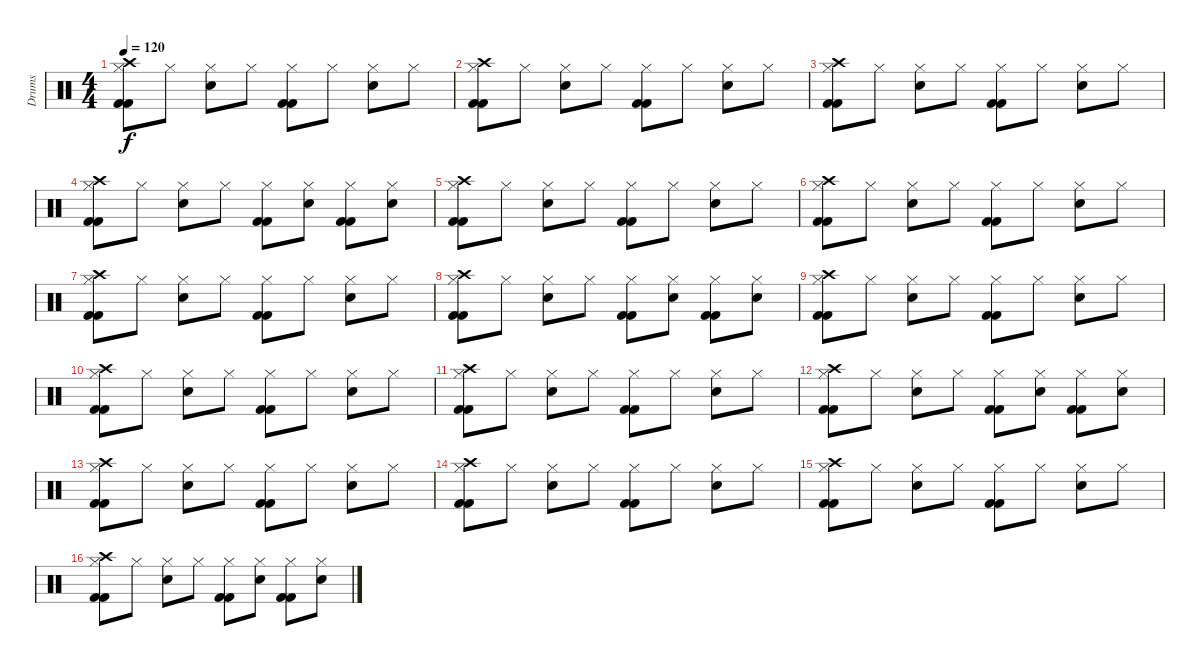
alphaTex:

\track ("Drums" "Drums") {instrument percussion}
\staff {score}
\articulation defaults
\ts (4 4)
\tempo 120
\clef neutral
\ks c
("Hi-Hat (closed)" "Crash high (hit)" "Kick (hit) 2" "Kick (hit) 2").8{dy f} "Hi-Hat (closed)".8 ("Hi-Hat (closed)" "Electric Snare (hit)").8 "Hi-Hat (closed)".8 ("Hi-Hat (closed)" "Kick (hit) 2" "Kick (hit) 2").8 "Hi-Hat (closed)".8 ("Hi-Hat (closed)" "Electric Snare (hit)").8 "Hi-Hat (closed)".8 |
("Hi-Hat (closed)" "Crash high (hit)" "Kick (hit) 2" "Kick (hit) 2").8 "Hi-Hat (closed)".8 ("Hi-Hat (closed)" "Electric Snare (hit)").8 "Hi-Hat (closed)".8 ("Hi-Hat (closed)" "Kick (hit) 2" "Kick (hit) 2").8 "Hi-Hat (closed)".8 ("Hi-Hat (closed)" "Electric Snare (hit)").8 "Hi-Hat (closed)".8 |
("Hi-Hat (closed)" "Crash high (hit)" "Kick (hit) 2" "Kick (hit) 2").8 "Hi-Hat (closed)".8 ("Hi-Hat (closed)" "Electric Snare (hit)").8 "Hi-Hat (closed)".8 ("Hi-Hat (closed)" "Kick (hit) 2" "Kick (hit) 2").8 "Hi-Hat (closed)".8 ("Hi-Hat (closed)" "Electric Snare (hit)").8 "Hi-Hat (closed)".8 |
("Hi-Hat (closed)" "Crash high (hit)" "Kick (hit) 2" "Kick (hit) 2").8 "Hi-Hat (closed)".8 ("Hi-Hat (closed)" "Electric Snare (hit)").8 "Hi-Hat (closed)".8 ("Hi-Hat (closed)" "Kick (hit) 2" "Kick (hit) 2").8 ("Hi-Hat (closed)" "Electric Snare (hit)").8 ("Hi-Hat (closed)" "Kick (hit) 2" "Kick (hit) 2").8 ("Hi-Hat (closed)" "Electric Snare (hit)").8 |
("Hi-Hat (closed)" "Crash high (hit)" "Kick (hit) 2" "Kick (hit) 2").8 "Hi-Hat (closed)".8 ("Hi-Hat (closed)" "Electric Snare (hit)").8 "Hi-Hat (closed)".8 ("Hi-Hat (closed)" "Kick (hit) 2" "Kick (hit) 2").8 "Hi-Hat (closed)".8 ("Hi-Hat (closed)" "Electric Snare (hit)").8 "Hi-Hat (closed)".8 |
("Hi-Hat (closed)" "Crash high (hit)" "Kick (hit) 2" "Kick (hit) 2").8 "Hi-Hat (closed)".8 ("Hi-Hat (closed)" "Electric Snare (hit)").8 "Hi-Hat (closed)".8 ("Hi-Hat (closed)" "Kick (hit) 2" "Kick (hit) 2").8 "Hi-Hat (closed)".8 ("Hi-Hat (closed)" "Electric Snare (hit)").8 "Hi-Hat (closed)".8 |
("Hi-Hat (closed)" "Crash high (hit)" "Kick (hit) 2" "Kick (hit) 2").8 "Hi-Hat (closed)".8 ("Hi-Hat (closed)" "Electric Snare (hit)").8 "Hi-Hat (closed)".8 ("Hi-Hat (closed)" "Kick (hit) 2" "Kick (hit) 2").8 "Hi-Hat (closed)".8 ("Hi-Hat (closed)" "Electric Snare (hit)").8 "Hi-Hat (closed)".8 |
("Hi-Hat (closed)" "Crash high (hit)" "Kick (hit) 2" "Kick (hit) 2").8 "Hi-Hat (closed)".8 ("Hi-Hat (closed)" "Electric Snare (hit)").8 "Hi-Hat (closed)".8 ("Hi-Hat (closed)" "Kick (hit) 2" "Kick (hit) 2").8 ("Hi-Hat (closed)" "Electric Snare (hit)").8 ("Hi-Hat (closed)" "Kick (hit) 2" "Kick (hit) 2").8 ("Hi-Hat (closed)" "Electric Snare (hit)").8 |
("Hi-Hat (closed)" "Crash high (hit)" "Kick (hit) 2" "Kick (hit) 2").8 "Hi-Hat (closed)".8 ("Hi-Hat (closed)" "Electric Snare (hit)").8 "Hi-Hat (closed)".8 ("Hi-Hat (closed)" "Kick (hit) 2" "Kick (hit) 2").8 "Hi-Hat (closed)".8 ("Hi-Hat (closed)" "Electric Snare (hit)").8 "Hi-Hat (closed)".8 |
("Hi-Hat (closed)" "Crash high (hit)" "Kick (hit) 2" "Kick (hit) 2").8 "Hi-Hat (closed)".8 ("Hi-Hat (closed)" "Electric Snare (hit)").8 "Hi-Hat (closed)".8 ("Hi-Hat (closed)" "Kick (hit) 2" "Kick (hit) 2").8 "Hi-Hat (closed)".8 ("Hi-Hat (closed)" "Electric Snare (hit)").8 "Hi-Hat (closed)".8 |
("Hi-Hat (closed)" "Crash high (hit)" "Kick (hit) 2" "Kick (hit) 2").8 "Hi-Hat (closed)".8 ("Hi-Hat (closed)" "Electric Snare (hit)").8 "Hi-Hat (closed)".8 ("Hi-Hat (closed)" "Kick (hit) 2" "Kick (hit) 2").8 "Hi-Hat (closed)".8 ("Hi-Hat (closed)" "Electric Snare (hit)").8 "Hi-Hat (closed)".8 |
("Hi-Hat (closed)" "Crash high (hit)" "Kick (hit) 2" "Kick (hit) 2").8 "Hi-Hat (closed)".8 ("Hi-Hat (closed)" "Electric Snare (hit)").8 "Hi-Hat (closed)".8 ("Hi-Hat (closed)" "Kick (hit) 2" "Kick (hit) 2").8 ("Hi-Hat (closed)" "Electric Snare (hit)").8 ("Hi-Hat (closed)" "Kick (hit) 2" "Kick (hit) 2").8 ("Hi-Hat (closed)" "Electric Snare (hit)").8 |
("Hi-Hat (closed)" "Crash high (hit)" "Kick (hit) 2" "Kick (hit) 2").8 "Hi-Hat (closed)".8 ("Hi-Hat (closed)" "Electric Snare (hit)").8 "Hi-Hat (closed)".8 ("Hi-Hat (closed)" "Kick (hit) 2" "Kick (hit) 2").8 "Hi-Hat (closed)".8 ("Hi-Hat (closed)" "Electric Snare (hit)").8 "Hi-Hat (closed)".8 |
("Hi-Hat (closed)" "Crash high (hit)" "Kick (hit) 2" "Kick (hit) 2").8 "Hi-Hat (closed)".8 ("Hi-Hat (closed)" "Electric Snare (hit)").8 "Hi-Hat (closed)".8 ("Hi-Hat (closed)" "Kick (hit) 2" "Kick (hit) 2").8 "Hi-Hat (closed)".8 ("Hi-Hat (closed)" "Electric Snare (hit)").8 "Hi-Hat (closed)".8 |
("Hi-Hat (closed)" "Crash high (hit)" "Kick (hit) 2" "Kick (hit) 2").8 "Hi-Hat (closed)".8 ("Hi-Hat (closed)" "Electric Snare (hit)").8 "Hi-Hat (closed)".8 ("Hi-Hat (closed)" "Kick (hit) 2" "Kick (hit) 2").8 "Hi-Hat (closed)".8 ("Hi-Hat (closed)" "Electric Snare (hit)").8 "Hi-Hat (closed)".8 |
("Hi-Hat (closed)" "Crash high (hit)" "Kick (hit) 2" "Kick (hit) 2").8 "Hi-Hat (closed)".8 ("Hi-Hat (closed)" "Electric Snare (hit)").8 "Hi-Hat (closed)".8 ("Hi-Hat (closed)" "Kick (hit) 2" "Kick (hit) 2").8 ("Hi-Hat (closed)" "Electric Snare (hit)").8 ("Hi-Hat (closed)" "Kick (hit) 2" "Kick (hit) 2").8 ("Hi-Hat (closed)" "Electric Snare (hit)").8
